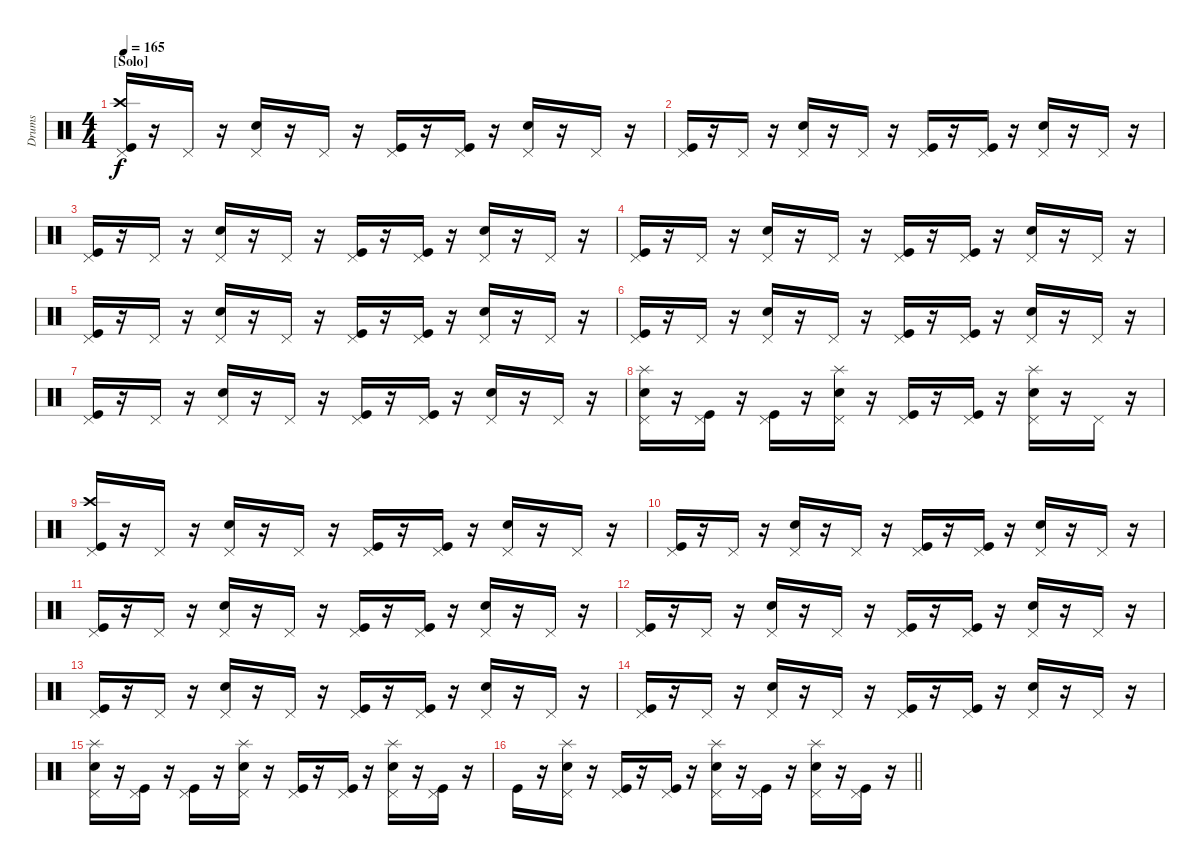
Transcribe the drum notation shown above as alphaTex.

\track ("Drums" "Drums") {instrument percussion}
\staff {score}
\articulation defaults
\ts (4 4)
\section ("" "[Solo]")
\tempo 165
\clef neutral
\ks c
("Pedal Hi-Hat (hit)" "Crash high (hit)" "Kick (hit)").16{dy f} r.16 "Pedal Hi-Hat (hit)".16 r.16 ("Pedal Hi-Hat (hit)" "Snare (hit) 2").16 r.16 "Pedal Hi-Hat (hit)".16 r.16 ("Pedal Hi-Hat (hit)" "Kick (hit)").16 r.16 ("Pedal Hi-Hat (hit)" "Kick (hit)").16 r.16 ("Pedal Hi-Hat (hit)" "Snare (hit) 2").16 r.16 "Pedal Hi-Hat (hit)".16 r.16 |
("Pedal Hi-Hat (hit)" "Kick (hit)").16 r.16 "Pedal Hi-Hat (hit)".16 r.16 ("Pedal Hi-Hat (hit)" "Snare (hit) 2").16 r.16 "Pedal Hi-Hat (hit)".16 r.16 ("Pedal Hi-Hat (hit)" "Kick (hit)").16 r.16 ("Pedal Hi-Hat (hit)" "Kick (hit)").16 r.16 ("Pedal Hi-Hat (hit)" "Snare (hit) 2").16 r.16 "Pedal Hi-Hat (hit)".16 r.16 |
("Pedal Hi-Hat (hit)" "Kick (hit)").16 r.16 "Pedal Hi-Hat (hit)".16 r.16 ("Pedal Hi-Hat (hit)" "Snare (hit) 2").16 r.16 "Pedal Hi-Hat (hit)".16 r.16 ("Pedal Hi-Hat (hit)" "Kick (hit)").16 r.16 ("Pedal Hi-Hat (hit)" "Kick (hit)").16 r.16 ("Pedal Hi-Hat (hit)" "Snare (hit) 2").16 r.16 "Pedal Hi-Hat (hit)".16 r.16 |
("Pedal Hi-Hat (hit)" "Kick (hit)").16 r.16 "Pedal Hi-Hat (hit)".16 r.16 ("Pedal Hi-Hat (hit)" "Snare (hit) 2").16 r.16 "Pedal Hi-Hat (hit)".16 r.16 ("Pedal Hi-Hat (hit)" "Kick (hit)").16 r.16 ("Pedal Hi-Hat (hit)" "Kick (hit)").16 r.16 ("Pedal Hi-Hat (hit)" "Snare (hit) 2").16 r.16 "Pedal Hi-Hat (hit)".16 r.16 |
("Pedal Hi-Hat (hit)" "Kick (hit)").16 r.16 "Pedal Hi-Hat (hit)".16 r.16 ("Pedal Hi-Hat (hit)" "Snare (hit) 2").16 r.16 "Pedal Hi-Hat (hit)".16 r.16 ("Pedal Hi-Hat (hit)" "Kick (hit)").16 r.16 ("Pedal Hi-Hat (hit)" "Kick (hit)").16 r.16 ("Pedal Hi-Hat (hit)" "Snare (hit) 2").16 r.16 "Pedal Hi-Hat (hit)".16 r.16 |
("Pedal Hi-Hat (hit)" "Kick (hit)").16 r.16 "Pedal Hi-Hat (hit)".16 r.16 ("Pedal Hi-Hat (hit)" "Snare (hit) 2").16 r.16 "Pedal Hi-Hat (hit)".16 r.16 ("Pedal Hi-Hat (hit)" "Kick (hit)").16 r.16 ("Pedal Hi-Hat (hit)" "Kick (hit)").16 r.16 ("Pedal Hi-Hat (hit)" "Snare (hit) 2").16 r.16 "Pedal Hi-Hat (hit)".16 r.16 |
("Pedal Hi-Hat (hit)" "Kick (hit)").16 r.16 "Pedal Hi-Hat (hit)".16 r.16 ("Pedal Hi-Hat (hit)" "Snare (hit) 2").16 r.16 "Pedal Hi-Hat (hit)".16 r.16 ("Pedal Hi-Hat (hit)" "Kick (hit)").16 r.16 ("Pedal Hi-Hat (hit)" "Kick (hit)").16 r.16 ("Pedal Hi-Hat (hit)" "Snare (hit) 2").16 r.16 "Pedal Hi-Hat (hit)".16 r.16 |
("Pedal Hi-Hat (hit)" "Splash (hit)" "Snare (hit) 2").16 r.16 ("Pedal Hi-Hat (hit)" "Kick (hit)").16 r.16 ("Pedal Hi-Hat (hit)" "Kick (hit)").16 r.16 ("Pedal Hi-Hat (hit)" "Splash (hit)" "Snare (hit) 2").16 r.16 ("Pedal Hi-Hat (hit)" "Kick (hit)").16 r.16 ("Pedal Hi-Hat (hit)" "Kick (hit)").16 r.16 ("Pedal Hi-Hat (hit)" "Splash (hit)" "Snare (hit) 2").16 r.16 "Pedal Hi-Hat (hit)".16 r.16 |
("Pedal Hi-Hat (hit)" "Crash high (hit)" "Kick (hit)").16 r.16 "Pedal Hi-Hat (hit)".16 r.16 ("Pedal Hi-Hat (hit)" "Snare (hit) 2").16 r.16 "Pedal Hi-Hat (hit)".16 r.16 ("Pedal Hi-Hat (hit)" "Kick (hit)").16 r.16 ("Pedal Hi-Hat (hit)" "Kick (hit)").16 r.16 ("Pedal Hi-Hat (hit)" "Snare (hit) 2").16 r.16 "Pedal Hi-Hat (hit)".16 r.16 |
("Pedal Hi-Hat (hit)" "Kick (hit)").16 r.16 "Pedal Hi-Hat (hit)".16 r.16 ("Pedal Hi-Hat (hit)" "Snare (hit) 2").16 r.16 "Pedal Hi-Hat (hit)".16 r.16 ("Pedal Hi-Hat (hit)" "Kick (hit)").16 r.16 ("Pedal Hi-Hat (hit)" "Kick (hit)").16 r.16 ("Pedal Hi-Hat (hit)" "Snare (hit) 2").16 r.16 "Pedal Hi-Hat (hit)".16 r.16 |
("Pedal Hi-Hat (hit)" "Kick (hit)").16 r.16 "Pedal Hi-Hat (hit)".16 r.16 ("Pedal Hi-Hat (hit)" "Snare (hit) 2").16 r.16 "Pedal Hi-Hat (hit)".16 r.16 ("Pedal Hi-Hat (hit)" "Kick (hit)").16 r.16 ("Pedal Hi-Hat (hit)" "Kick (hit)").16 r.16 ("Pedal Hi-Hat (hit)" "Snare (hit) 2").16 r.16 "Pedal Hi-Hat (hit)".16 r.16 |
("Pedal Hi-Hat (hit)" "Kick (hit)").16 r.16 "Pedal Hi-Hat (hit)".16 r.16 ("Pedal Hi-Hat (hit)" "Snare (hit) 2").16 r.16 "Pedal Hi-Hat (hit)".16 r.16 ("Pedal Hi-Hat (hit)" "Kick (hit)").16 r.16 ("Pedal Hi-Hat (hit)" "Kick (hit)").16 r.16 ("Pedal Hi-Hat (hit)" "Snare (hit) 2").16 r.16 "Pedal Hi-Hat (hit)".16 r.16 |
("Pedal Hi-Hat (hit)" "Kick (hit)").16 r.16 "Pedal Hi-Hat (hit)".16 r.16 ("Pedal Hi-Hat (hit)" "Snare (hit) 2").16 r.16 "Pedal Hi-Hat (hit)".16 r.16 ("Pedal Hi-Hat (hit)" "Kick (hit)").16 r.16 ("Pedal Hi-Hat (hit)" "Kick (hit)").16 r.16 ("Pedal Hi-Hat (hit)" "Snare (hit) 2").16 r.16 "Pedal Hi-Hat (hit)".16 r.16 |
("Pedal Hi-Hat (hit)" "Kick (hit)").16 r.16 "Pedal Hi-Hat (hit)".16 r.16 ("Pedal Hi-Hat (hit)" "Snare (hit) 2").16 r.16 "Pedal Hi-Hat (hit)".16 r.16 ("Pedal Hi-Hat (hit)" "Kick (hit)").16 r.16 ("Pedal Hi-Hat (hit)" "Kick (hit)").16 r.16 ("Pedal Hi-Hat (hit)" "Snare (hit) 2").16 r.16 "Pedal Hi-Hat (hit)".16 r.16 |
("Pedal Hi-Hat (hit)" "Splash (hit)" "Snare (hit) 2").16 r.16 ("Pedal Hi-Hat (hit)" "Kick (hit)").16 r.16 ("Pedal Hi-Hat (hit)" "Kick (hit)").16 r.16 ("Pedal Hi-Hat (hit)" "Splash (hit)" "Snare (hit) 2").16 r.16 ("Pedal Hi-Hat (hit)" "Kick (hit)").16 r.16 ("Pedal Hi-Hat (hit)" "Kick (hit)").16 r.16 ("Pedal Hi-Hat (hit)" "Splash (hit)" "Snare (hit) 2").16 r.16 ("Pedal Hi-Hat (hit)" "Kick (hit)").16 r.16 |
\barLineRight lightlight "Kick (hit)".16
r.16 ("Pedal Hi-Hat (hit)" "Splash (hit)" "Snare (hit) 2").16 r.16 ("Pedal Hi-Hat (hit)" "Kick (hit)").16 r.16 ("Pedal Hi-Hat (hit)" "Kick (hit)").16 r.16 ("Pedal Hi-Hat (hit)" "Splash (hit)" "Snare (hit) 2").16 r.16 ("Pedal Hi-Hat (hit)" "Kick (hit)").16 r.16 ("Pedal Hi-Hat (hit)" "Splash (hit)" "Snare (hit) 2").16 r.16 ("Pedal Hi-Hat (hit)" "Kick (hit)").16 r.16
